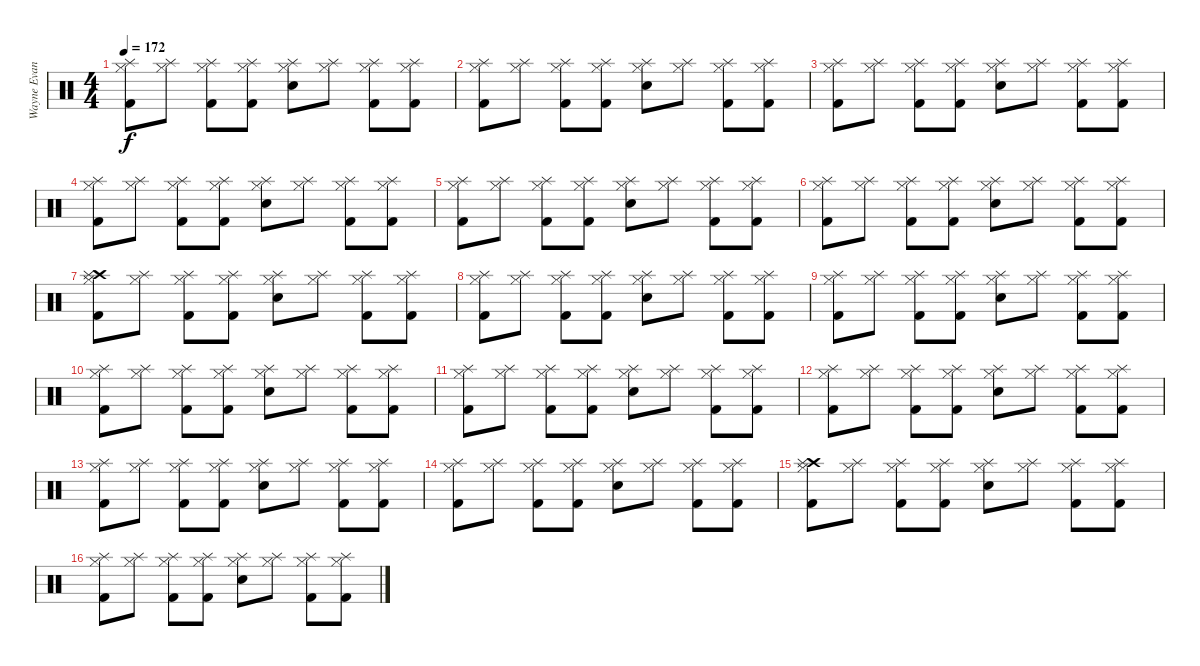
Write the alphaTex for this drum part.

\track ("Wayne Evans  " "Wayne Evan") {instrument percussion}
\staff {score}
\articulation defaults
\ts (4 4)
\tempo 172
\clef neutral
\ks c
("Splash (hit)" "Hi-Hat (closed)" "Kick (hit) 2").8{dy f} ("Splash (hit)" "Hi-Hat (closed)").8 ("Splash (hit)" "Hi-Hat (closed)" "Kick (hit) 2").8 ("Splash (hit)" "Hi-Hat (closed)" "Kick (hit) 2").8 ("Splash (hit)" "Hi-Hat (closed)" "Electric Snare (hit)").8 ("Splash (hit)" "Hi-Hat (closed)").8 ("Splash (hit)" "Hi-Hat (closed)" "Kick (hit) 2").8 ("Splash (hit)" "Hi-Hat (closed)" "Kick (hit) 2").8 |
("Splash (hit)" "Hi-Hat (closed)" "Kick (hit) 2").8 ("Splash (hit)" "Hi-Hat (closed)").8 ("Splash (hit)" "Hi-Hat (closed)" "Kick (hit) 2").8 ("Splash (hit)" "Hi-Hat (closed)" "Kick (hit) 2").8 ("Splash (hit)" "Hi-Hat (closed)" "Electric Snare (hit)").8 ("Splash (hit)" "Hi-Hat (closed)").8 ("Splash (hit)" "Hi-Hat (closed)" "Kick (hit) 2").8 ("Splash (hit)" "Hi-Hat (closed)" "Kick (hit) 2").8 |
("Splash (hit)" "Hi-Hat (closed)" "Kick (hit) 2").8 ("Splash (hit)" "Hi-Hat (closed)").8 ("Splash (hit)" "Hi-Hat (closed)" "Kick (hit) 2").8 ("Splash (hit)" "Hi-Hat (closed)" "Kick (hit) 2").8 ("Splash (hit)" "Hi-Hat (closed)" "Electric Snare (hit)").8 ("Splash (hit)" "Hi-Hat (closed)").8 ("Splash (hit)" "Hi-Hat (closed)" "Kick (hit) 2").8 ("Splash (hit)" "Hi-Hat (closed)" "Kick (hit) 2").8 |
("Splash (hit)" "Hi-Hat (closed)" "Kick (hit) 2").8 ("Splash (hit)" "Hi-Hat (closed)").8 ("Splash (hit)" "Hi-Hat (closed)" "Kick (hit) 2").8 ("Splash (hit)" "Hi-Hat (closed)" "Kick (hit) 2").8 ("Splash (hit)" "Hi-Hat (closed)" "Electric Snare (hit)").8 ("Splash (hit)" "Hi-Hat (closed)").8 ("Splash (hit)" "Hi-Hat (closed)" "Kick (hit) 2").8 ("Splash (hit)" "Hi-Hat (closed)" "Kick (hit) 2").8 |
("Splash (hit)" "Hi-Hat (closed)" "Kick (hit) 2").8 ("Splash (hit)" "Hi-Hat (closed)").8 ("Splash (hit)" "Hi-Hat (closed)" "Kick (hit) 2").8 ("Splash (hit)" "Hi-Hat (closed)" "Kick (hit) 2").8 ("Splash (hit)" "Hi-Hat (closed)" "Electric Snare (hit)").8 ("Splash (hit)" "Hi-Hat (closed)").8 ("Splash (hit)" "Hi-Hat (closed)" "Kick (hit) 2").8 ("Splash (hit)" "Hi-Hat (closed)" "Kick (hit) 2").8 |
("Splash (hit)" "Hi-Hat (closed)" "Kick (hit) 2").8 ("Splash (hit)" "Hi-Hat (closed)").8 ("Splash (hit)" "Hi-Hat (closed)" "Kick (hit) 2").8 ("Splash (hit)" "Hi-Hat (closed)" "Kick (hit) 2").8 ("Splash (hit)" "Hi-Hat (closed)" "Electric Snare (hit)").8 ("Splash (hit)" "Hi-Hat (closed)").8 ("Splash (hit)" "Hi-Hat (closed)" "Kick (hit) 2").8 ("Splash (hit)" "Hi-Hat (closed)" "Kick (hit) 2").8 |
("Crash high (hit)" "Splash (hit)" "Hi-Hat (closed)" "Kick (hit) 2").8 ("Splash (hit)" "Hi-Hat (closed)").8 ("Splash (hit)" "Hi-Hat (closed)" "Kick (hit) 2").8 ("Splash (hit)" "Hi-Hat (closed)" "Kick (hit) 2").8 ("Splash (hit)" "Hi-Hat (closed)" "Electric Snare (hit)").8 ("Splash (hit)" "Hi-Hat (closed)").8 ("Splash (hit)" "Hi-Hat (closed)" "Kick (hit) 2").8 ("Splash (hit)" "Hi-Hat (closed)" "Kick (hit) 2").8 |
("Splash (hit)" "Hi-Hat (closed)" "Kick (hit) 2").8 ("Splash (hit)" "Hi-Hat (closed)").8 ("Splash (hit)" "Hi-Hat (closed)" "Kick (hit) 2").8 ("Splash (hit)" "Hi-Hat (closed)" "Kick (hit) 2").8 ("Splash (hit)" "Hi-Hat (closed)" "Electric Snare (hit)").8 ("Splash (hit)" "Hi-Hat (closed)").8 ("Splash (hit)" "Hi-Hat (closed)" "Kick (hit) 2").8 ("Splash (hit)" "Hi-Hat (closed)" "Kick (hit) 2").8 |
("Splash (hit)" "Hi-Hat (closed)" "Kick (hit) 2").8 ("Splash (hit)" "Hi-Hat (closed)").8 ("Splash (hit)" "Hi-Hat (closed)" "Kick (hit) 2").8 ("Splash (hit)" "Hi-Hat (closed)" "Kick (hit) 2").8 ("Splash (hit)" "Hi-Hat (closed)" "Electric Snare (hit)").8 ("Splash (hit)" "Hi-Hat (closed)").8 ("Splash (hit)" "Hi-Hat (closed)" "Kick (hit) 2").8 ("Splash (hit)" "Hi-Hat (closed)" "Kick (hit) 2").8 |
("Splash (hit)" "Hi-Hat (closed)" "Kick (hit) 2").8 ("Splash (hit)" "Hi-Hat (closed)").8 ("Splash (hit)" "Hi-Hat (closed)" "Kick (hit) 2").8 ("Splash (hit)" "Hi-Hat (closed)" "Kick (hit) 2").8 ("Splash (hit)" "Hi-Hat (closed)" "Electric Snare (hit)").8 ("Splash (hit)" "Hi-Hat (closed)").8 ("Splash (hit)" "Hi-Hat (closed)" "Kick (hit) 2").8 ("Splash (hit)" "Hi-Hat (closed)" "Kick (hit) 2").8 |
("Splash (hit)" "Hi-Hat (closed)" "Kick (hit) 2").8 ("Splash (hit)" "Hi-Hat (closed)").8 ("Splash (hit)" "Hi-Hat (closed)" "Kick (hit) 2").8 ("Splash (hit)" "Hi-Hat (closed)" "Kick (hit) 2").8 ("Splash (hit)" "Hi-Hat (closed)" "Electric Snare (hit)").8 ("Splash (hit)" "Hi-Hat (closed)").8 ("Splash (hit)" "Hi-Hat (closed)" "Kick (hit) 2").8 ("Splash (hit)" "Hi-Hat (closed)" "Kick (hit) 2").8 |
("Splash (hit)" "Hi-Hat (closed)" "Kick (hit) 2").8 ("Splash (hit)" "Hi-Hat (closed)").8 ("Splash (hit)" "Hi-Hat (closed)" "Kick (hit) 2").8 ("Splash (hit)" "Hi-Hat (closed)" "Kick (hit) 2").8 ("Splash (hit)" "Hi-Hat (closed)" "Electric Snare (hit)").8 ("Splash (hit)" "Hi-Hat (closed)").8 ("Splash (hit)" "Hi-Hat (closed)" "Kick (hit) 2").8 ("Splash (hit)" "Hi-Hat (closed)" "Kick (hit) 2").8 |
("Splash (hit)" "Hi-Hat (closed)" "Kick (hit) 2").8 ("Splash (hit)" "Hi-Hat (closed)").8 ("Splash (hit)" "Hi-Hat (closed)" "Kick (hit) 2").8 ("Splash (hit)" "Hi-Hat (closed)" "Kick (hit) 2").8 ("Splash (hit)" "Hi-Hat (closed)" "Electric Snare (hit)").8 ("Splash (hit)" "Hi-Hat (closed)").8 ("Splash (hit)" "Hi-Hat (closed)" "Kick (hit) 2").8 ("Splash (hit)" "Hi-Hat (closed)" "Kick (hit) 2").8 |
("Splash (hit)" "Hi-Hat (closed)" "Kick (hit) 2").8 ("Splash (hit)" "Hi-Hat (closed)").8 ("Splash (hit)" "Hi-Hat (closed)" "Kick (hit) 2").8 ("Splash (hit)" "Hi-Hat (closed)" "Kick (hit) 2").8 ("Splash (hit)" "Hi-Hat (closed)" "Electric Snare (hit)").8 ("Splash (hit)" "Hi-Hat (closed)").8 ("Splash (hit)" "Hi-Hat (closed)" "Kick (hit) 2").8 ("Splash (hit)" "Hi-Hat (closed)" "Kick (hit) 2").8 |
("Crash high (hit)" "Splash (hit)" "Hi-Hat (closed)" "Kick (hit) 2").8 ("Splash (hit)" "Hi-Hat (closed)").8 ("Splash (hit)" "Hi-Hat (closed)" "Kick (hit) 2").8 ("Splash (hit)" "Hi-Hat (closed)" "Kick (hit) 2").8 ("Splash (hit)" "Hi-Hat (closed)" "Electric Snare (hit)").8 ("Splash (hit)" "Hi-Hat (closed)").8 ("Splash (hit)" "Hi-Hat (closed)" "Kick (hit) 2").8 ("Splash (hit)" "Hi-Hat (closed)" "Kick (hit) 2").8 |
("Splash (hit)" "Hi-Hat (closed)" "Kick (hit) 2").8 ("Splash (hit)" "Hi-Hat (closed)").8 ("Splash (hit)" "Hi-Hat (closed)" "Kick (hit) 2").8 ("Splash (hit)" "Hi-Hat (closed)" "Kick (hit) 2").8 ("Splash (hit)" "Hi-Hat (closed)" "Electric Snare (hit)").8 ("Splash (hit)" "Hi-Hat (closed)").8 ("Splash (hit)" "Hi-Hat (closed)" "Kick (hit) 2").8 ("Splash (hit)" "Hi-Hat (closed)" "Kick (hit) 2").8
